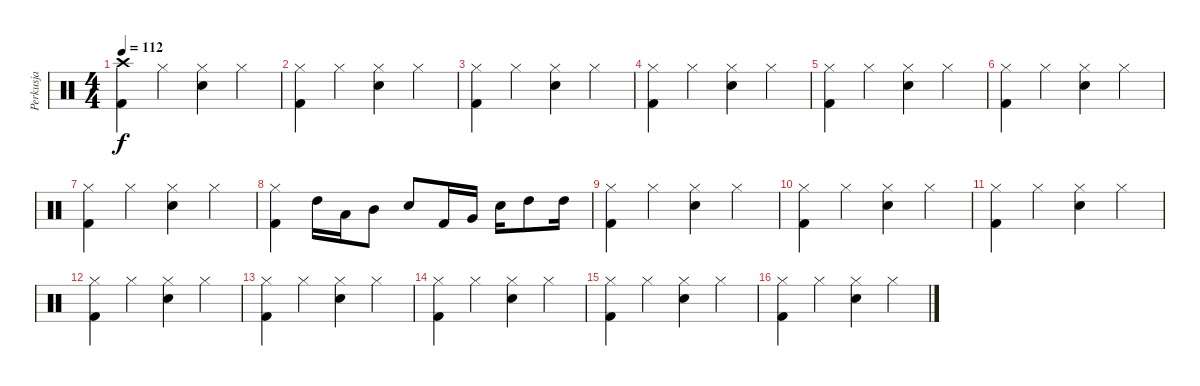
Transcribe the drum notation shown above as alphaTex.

\track ("Perkusja" "Perkusja") {instrument percussion}
\staff {score}
\articulation defaults
\ts (4 4)
\tempo 112
\clef neutral
\ks c
("Kick (hit) 2" "Crash high (hit)").4{dy f} "Hi-Hat (closed)".4 ("Snare (hit) 2" "Hi-Hat (closed)").4 "Hi-Hat (closed)".4 |
("Kick (hit) 2" "Hi-Hat (closed)").4 "Hi-Hat (closed)".4 ("Snare (hit) 2" "Hi-Hat (closed)").4 "Hi-Hat (closed)".4 |
("Kick (hit) 2" "Hi-Hat (closed)").4 "Hi-Hat (closed)".4 ("Snare (hit) 2" "Hi-Hat (closed)").4 "Hi-Hat (closed)".4 |
("Kick (hit) 2" "Hi-Hat (closed)").4 "Hi-Hat (closed)".4 ("Snare (hit) 2" "Hi-Hat (closed)").4 "Hi-Hat (closed)".4 |
("Kick (hit) 2" "Hi-Hat (closed)").4 "Hi-Hat (closed)".4 ("Snare (hit) 2" "Hi-Hat (closed)").4 "Hi-Hat (closed)".4 |
("Kick (hit) 2" "Hi-Hat (closed)").4 "Hi-Hat (closed)".4 ("Snare (hit) 2" "Hi-Hat (closed)").4 "Hi-Hat (closed)".4 |
("Kick (hit) 2" "Hi-Hat (closed)").4 "Hi-Hat (closed)".4 ("Snare (hit) 2" "Hi-Hat (closed)").4 "Hi-Hat (closed)".4 |
("Kick (hit) 2" "Hi-Hat (closed)").4 "High Tom (hit)".16 "Low Tom (hit)".16 "Mid Tom (hit)".8 "Electric Snare (hit)".8 "Kick (hit) 2".16 "Very Low Tom (hit)".16 "Snare (hit) 2".16 "High Tom (hit)".8 "High Tom (hit)".16 |
("Kick (hit) 2" "Hi-Hat (closed)").4 "Hi-Hat (closed)".4 ("Snare (hit) 2" "Hi-Hat (closed)").4 "Hi-Hat (closed)".4 |
("Kick (hit) 2" "Hi-Hat (closed)").4 "Hi-Hat (closed)".4 ("Snare (hit) 2" "Hi-Hat (closed)").4 "Hi-Hat (closed)".4 |
("Kick (hit) 2" "Hi-Hat (closed)").4 "Hi-Hat (closed)".4 ("Snare (hit) 2" "Hi-Hat (closed)").4 "Hi-Hat (closed)".4 |
("Kick (hit) 2" "Hi-Hat (closed)").4 "Hi-Hat (closed)".4 ("Snare (hit) 2" "Hi-Hat (closed)").4 "Hi-Hat (closed)".4 |
("Kick (hit) 2" "Hi-Hat (closed)").4 "Hi-Hat (closed)".4 ("Snare (hit) 2" "Hi-Hat (closed)").4 "Hi-Hat (closed)".4 |
("Kick (hit) 2" "Hi-Hat (closed)").4 "Hi-Hat (closed)".4 ("Snare (hit) 2" "Hi-Hat (closed)").4 "Hi-Hat (closed)".4 |
("Kick (hit) 2" "Hi-Hat (closed)").4 "Hi-Hat (closed)".4 ("Snare (hit) 2" "Hi-Hat (closed)").4 "Hi-Hat (closed)".4 |
("Kick (hit) 2" "Hi-Hat (closed)").4 "Hi-Hat (closed)".4 ("Snare (hit) 2" "Hi-Hat (closed)").4 "Hi-Hat (closed)".4
